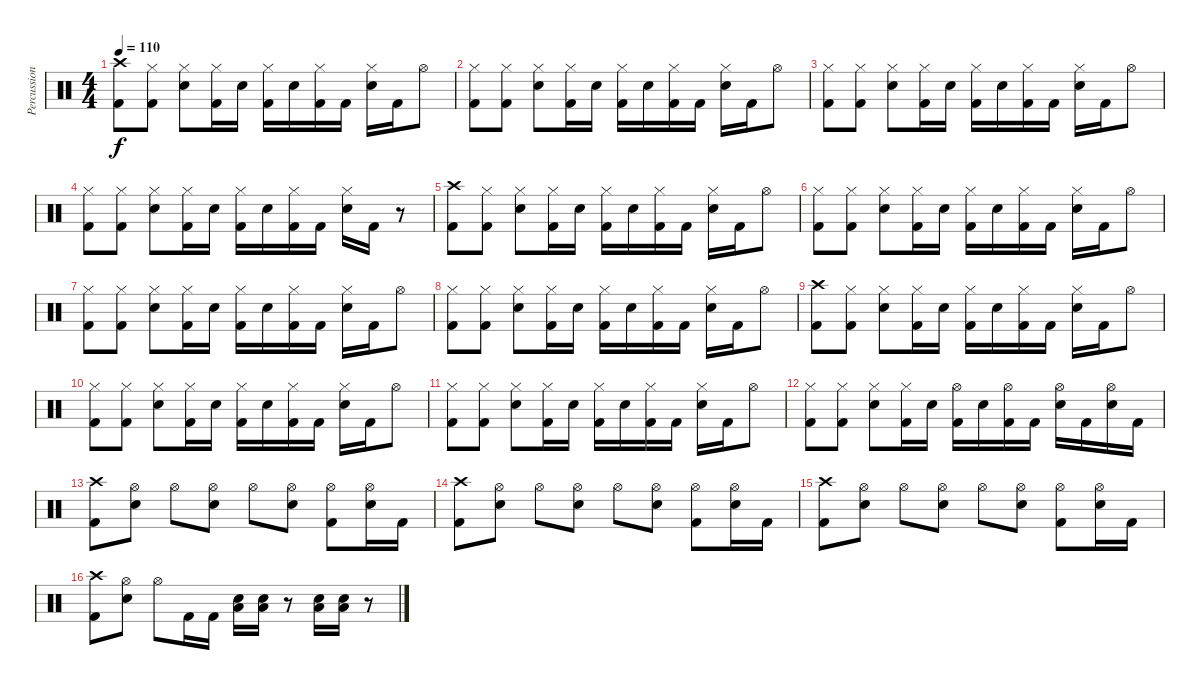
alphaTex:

\track ("Percussioni" "Percussion") {instrument percussion}
\staff {score}
\articulation defaults
\ts (4 4)
\tempo 110
\clef neutral
\ks c
("Crash high (hit)" "Kick (hit) 2").8{dy f} ("Hi-Hat (closed)" "Kick (hit) 2").8 ("Hi-Hat (closed)" "Snare (hit) 2").8 ("Hi-Hat (closed)" "Kick (hit) 2").16 "Snare (hit) 2".16 ("Hi-Hat (closed)" "Kick (hit) 2").16 "Snare (hit) 2".16 ("Hi-Hat (closed)" "Kick (hit) 2").16 "Kick (hit) 2".16 ("Hi-Hat (closed)" "Snare (hit) 2").16 "Kick (hit) 2".16 "Hi-Hat (open)".8 |
("Hi-Hat (closed)" "Kick (hit) 2").8 ("Hi-Hat (closed)" "Kick (hit) 2").8 ("Hi-Hat (closed)" "Snare (hit) 2").8 ("Hi-Hat (closed)" "Kick (hit) 2").16 "Snare (hit) 2".16 ("Hi-Hat (closed)" "Kick (hit) 2").16 "Snare (hit) 2".16 ("Hi-Hat (closed)" "Kick (hit) 2").16 "Kick (hit) 2".16 ("Hi-Hat (closed)" "Snare (hit) 2").16 "Kick (hit) 2".16 "Hi-Hat (open)".8 |
("Hi-Hat (closed)" "Kick (hit) 2").8 ("Hi-Hat (closed)" "Kick (hit) 2").8 ("Hi-Hat (closed)" "Snare (hit) 2").8 ("Hi-Hat (closed)" "Kick (hit) 2").16 "Snare (hit) 2".16 ("Hi-Hat (closed)" "Kick (hit) 2").16 "Snare (hit) 2".16 ("Hi-Hat (closed)" "Kick (hit) 2").16 "Kick (hit) 2".16 ("Hi-Hat (closed)" "Snare (hit) 2").16 "Kick (hit) 2".16 "Hi-Hat (open)".8 |
("Hi-Hat (closed)" "Kick (hit) 2").8 ("Hi-Hat (closed)" "Kick (hit) 2").8 ("Hi-Hat (closed)" "Snare (hit) 2").8 ("Hi-Hat (closed)" "Kick (hit) 2").16 "Snare (hit) 2".16 ("Hi-Hat (closed)" "Kick (hit) 2").16 "Snare (hit) 2".16 ("Hi-Hat (closed)" "Kick (hit) 2").16 "Kick (hit) 2".16 ("Hi-Hat (closed)" "Snare (hit) 2").16 "Kick (hit) 2".16 r.8 |
("Crash high (hit)" "Kick (hit) 2").8 ("Hi-Hat (closed)" "Kick (hit) 2").8 ("Hi-Hat (closed)" "Snare (hit) 2").8 ("Hi-Hat (closed)" "Kick (hit) 2").16 "Snare (hit) 2".16 ("Hi-Hat (closed)" "Kick (hit) 2").16 "Snare (hit) 2".16 ("Hi-Hat (closed)" "Kick (hit) 2").16 "Kick (hit) 2".16 ("Hi-Hat (closed)" "Snare (hit) 2").16 "Kick (hit) 2".16 "Hi-Hat (open)".8 |
("Hi-Hat (closed)" "Kick (hit) 2").8 ("Hi-Hat (closed)" "Kick (hit) 2").8 ("Hi-Hat (closed)" "Snare (hit) 2").8 ("Hi-Hat (closed)" "Kick (hit) 2").16 "Snare (hit) 2".16 ("Hi-Hat (closed)" "Kick (hit) 2").16 "Snare (hit) 2".16 ("Hi-Hat (closed)" "Kick (hit) 2").16 "Kick (hit) 2".16 ("Hi-Hat (closed)" "Snare (hit) 2").16 "Kick (hit) 2".16 "Hi-Hat (open)".8 |
("Hi-Hat (closed)" "Kick (hit) 2").8 ("Hi-Hat (closed)" "Kick (hit) 2").8 ("Hi-Hat (closed)" "Snare (hit) 2").8 ("Hi-Hat (closed)" "Kick (hit) 2").16 "Snare (hit) 2".16 ("Hi-Hat (closed)" "Kick (hit) 2").16 "Snare (hit) 2".16 ("Hi-Hat (closed)" "Kick (hit) 2").16 "Kick (hit) 2".16 ("Hi-Hat (closed)" "Snare (hit) 2").16 "Kick (hit) 2".16 "Hi-Hat (open)".8 |
("Hi-Hat (closed)" "Kick (hit) 2").8 ("Hi-Hat (closed)" "Kick (hit) 2").8 ("Hi-Hat (closed)" "Snare (hit) 2").8 ("Hi-Hat (closed)" "Kick (hit) 2").16 "Snare (hit) 2".16 ("Hi-Hat (closed)" "Kick (hit) 2").16 "Snare (hit) 2".16 ("Hi-Hat (closed)" "Kick (hit) 2").16 "Kick (hit) 2".16 ("Hi-Hat (closed)" "Snare (hit) 2").16 "Kick (hit) 2".16 "Hi-Hat (open)".8 |
("Crash high (hit)" "Kick (hit) 2").8 ("Hi-Hat (closed)" "Kick (hit) 2").8 ("Hi-Hat (closed)" "Snare (hit) 2").8 ("Hi-Hat (closed)" "Kick (hit) 2").16 "Snare (hit) 2".16 ("Hi-Hat (closed)" "Kick (hit) 2").16 "Snare (hit) 2".16 ("Hi-Hat (closed)" "Kick (hit) 2").16 "Kick (hit) 2".16 ("Hi-Hat (closed)" "Snare (hit) 2").16 "Kick (hit) 2".16 "Hi-Hat (open)".8 |
("Hi-Hat (closed)" "Kick (hit) 2").8 ("Hi-Hat (closed)" "Kick (hit) 2").8 ("Hi-Hat (closed)" "Snare (hit) 2").8 ("Hi-Hat (closed)" "Kick (hit) 2").16 "Snare (hit) 2".16 ("Hi-Hat (closed)" "Kick (hit) 2").16 "Snare (hit) 2".16 ("Hi-Hat (closed)" "Kick (hit) 2").16 "Kick (hit) 2".16 ("Hi-Hat (closed)" "Snare (hit) 2").16 "Kick (hit) 2".16 "Hi-Hat (open)".8 |
("Hi-Hat (closed)" "Kick (hit) 2").8 ("Hi-Hat (closed)" "Kick (hit) 2").8 ("Hi-Hat (closed)" "Snare (hit) 2").8 ("Hi-Hat (closed)" "Kick (hit) 2").16 "Snare (hit) 2".16 ("Hi-Hat (closed)" "Kick (hit) 2").16 "Snare (hit) 2".16 ("Hi-Hat (closed)" "Kick (hit) 2").16 "Kick (hit) 2".16 ("Hi-Hat (closed)" "Snare (hit) 2").16 "Kick (hit) 2".16 "Hi-Hat (open)".8 |
("Hi-Hat (closed)" "Kick (hit) 2").8 ("Hi-Hat (closed)" "Kick (hit) 2").8 ("Hi-Hat (closed)" "Snare (hit) 2").8 ("Hi-Hat (closed)" "Kick (hit) 2").16 "Snare (hit) 2".16 ("Hi-Hat (open)" "Kick (hit) 2").16 "Snare (hit) 2".16 ("Hi-Hat (open)" "Kick (hit) 2").16 "Kick (hit) 2".16 ("Hi-Hat (open)" "Snare (hit) 2").16 "Kick (hit) 2".16 ("Hi-Hat (open)" "Snare (hit) 2").16 "Kick (hit) 2".16 |
("Crash high (hit)" "Kick (hit) 2").8 ("Hi-Hat (open)" "Snare (hit) 2").8 "Hi-Hat (open)".8 ("Hi-Hat (open)" "Snare (hit) 2").8 "Hi-Hat (open)".8 ("Hi-Hat (open)" "Snare (hit) 2").8 ("Hi-Hat (open)" "Kick (hit) 2").8 ("Hi-Hat (open)" "Snare (hit) 2").16 "Kick (hit) 2".16 |
("Crash high (hit)" "Kick (hit) 2").8 ("Hi-Hat (open)" "Snare (hit) 2").8 "Hi-Hat (open)".8 ("Hi-Hat (open)" "Snare (hit) 2").8 "Hi-Hat (open)".8 ("Hi-Hat (open)" "Snare (hit) 2").8 ("Hi-Hat (open)" "Kick (hit) 2").8 ("Hi-Hat (open)" "Snare (hit) 2").16 "Kick (hit) 2".16 |
("Crash high (hit)" "Kick (hit) 2").8 ("Hi-Hat (open)" "Snare (hit) 2").8 "Hi-Hat (open)".8 ("Hi-Hat (open)" "Snare (hit) 2").8 "Hi-Hat (open)".8 ("Hi-Hat (open)" "Snare (hit) 2").8 ("Hi-Hat (open)" "Kick (hit) 2").8 ("Hi-Hat (open)" "Snare (hit) 2").16 "Kick (hit) 2".16 |
("Crash high (hit)" "Kick (hit) 2").8 ("Hi-Hat (open)" "Snare (hit) 2").8 "Hi-Hat (open)".8 "Kick (hit) 2".16 "Kick (hit) 2".16 ("Snare (hit) 2" "Low Tom (hit)").16 ("Snare (hit) 2" "Low Tom (hit)").16 r.8 ("Snare (hit) 2" "Low Tom (hit)").16 ("Snare (hit) 2" "Low Tom (hit)").16 r.8
